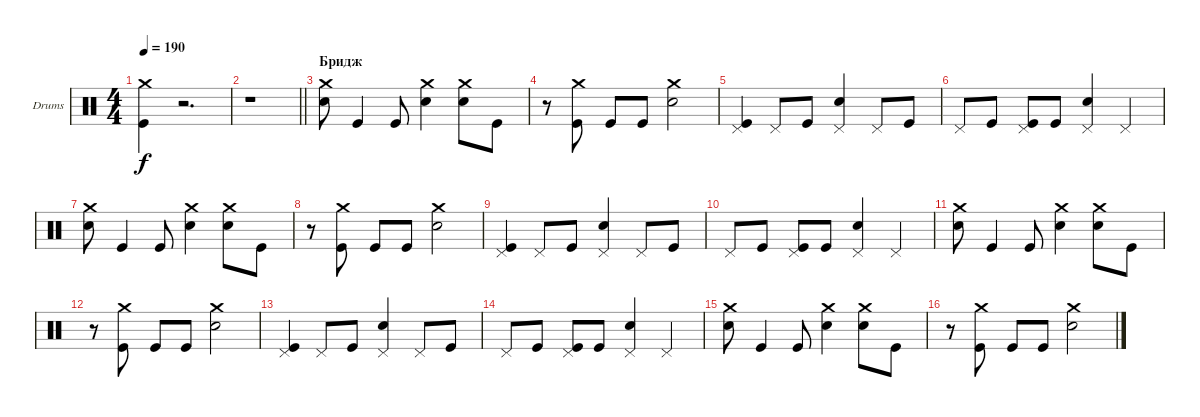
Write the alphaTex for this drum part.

\bracketExtendMode groupsimilarinstruments
\firstSystemTrackNameOrientation horizontal
\otherSystemsTrackNameOrientation horizontal
\track ("Максим Удалов" "Drums") {instrument percussion}
\staff {score}
\articulation defaults
\ts (4 4)
\tempo 190
\clef neutral
\ks c
("Kick (hit)" "Crash medium (hit)").4{dy f} r.2{d} |
\barLineRight lightlight
r.1 |
\section ("" "Бридж")
("Snare (hit) 2" "Crash medium (hit)").8 "Kick (hit)".4 "Kick (hit)".8 ("Snare (hit) 2" "Crash medium (hit)").4 ("Snare (hit) 2" "Crash medium (hit)").8 "Kick (hit)".8 |
r.8 ("Kick (hit)" "Crash medium (hit)").8 "Kick (hit)".8 "Kick (hit)".8 ("Snare (hit) 2" "Crash medium (hit)").2 |
("Kick (hit)" "Pedal Hi-Hat (hit)").4 "Pedal Hi-Hat (hit)".8 "Kick (hit)".8 ("Snare (hit) 2" "Pedal Hi-Hat (hit)").4 "Pedal Hi-Hat (hit)".8 "Kick (hit)".8 |
"Pedal Hi-Hat (hit)".8 "Kick (hit)".8 ("Kick (hit)" "Pedal Hi-Hat (hit)").8 "Kick (hit)".8 ("Snare (hit) 2" "Pedal Hi-Hat (hit)").4 "Pedal Hi-Hat (hit)".4 |
("Snare (hit) 2" "Crash medium (hit)").8 "Kick (hit)".4 "Kick (hit)".8 ("Snare (hit) 2" "Crash medium (hit)").4 ("Snare (hit) 2" "Crash medium (hit)").8 "Kick (hit)".8 |
r.8 ("Kick (hit)" "Crash medium (hit)").8 "Kick (hit)".8 "Kick (hit)".8 ("Snare (hit) 2" "Crash medium (hit)").2 |
("Kick (hit)" "Pedal Hi-Hat (hit)").4 "Pedal Hi-Hat (hit)".8 "Kick (hit)".8 ("Snare (hit) 2" "Pedal Hi-Hat (hit)").4 "Pedal Hi-Hat (hit)".8 "Kick (hit)".8 |
"Pedal Hi-Hat (hit)".8 "Kick (hit)".8 ("Kick (hit)" "Pedal Hi-Hat (hit)").8 "Kick (hit)".8 ("Snare (hit) 2" "Pedal Hi-Hat (hit)").4 "Pedal Hi-Hat (hit)".4 |
("Snare (hit) 2" "Crash medium (hit)").8 "Kick (hit)".4 "Kick (hit)".8 ("Snare (hit) 2" "Crash medium (hit)").4 ("Snare (hit) 2" "Crash medium (hit)").8 "Kick (hit)".8 |
r.8 ("Kick (hit)" "Crash medium (hit)").8 "Kick (hit)".8 "Kick (hit)".8 ("Snare (hit) 2" "Crash medium (hit)").2 |
("Kick (hit)" "Pedal Hi-Hat (hit)").4 "Pedal Hi-Hat (hit)".8 "Kick (hit)".8 ("Snare (hit) 2" "Pedal Hi-Hat (hit)").4 "Pedal Hi-Hat (hit)".8 "Kick (hit)".8 |
"Pedal Hi-Hat (hit)".8 "Kick (hit)".8 ("Kick (hit)" "Pedal Hi-Hat (hit)").8 "Kick (hit)".8 ("Snare (hit) 2" "Pedal Hi-Hat (hit)").4 "Pedal Hi-Hat (hit)".4 |
("Snare (hit) 2" "Crash medium (hit)").8 "Kick (hit)".4 "Kick (hit)".8 ("Snare (hit) 2" "Crash medium (hit)").4 ("Snare (hit) 2" "Crash medium (hit)").8 "Kick (hit)".8 |
r.8 ("Kick (hit)" "Crash medium (hit)").8 "Kick (hit)".8 "Kick (hit)".8 ("Snare (hit) 2" "Crash medium (hit)").2
